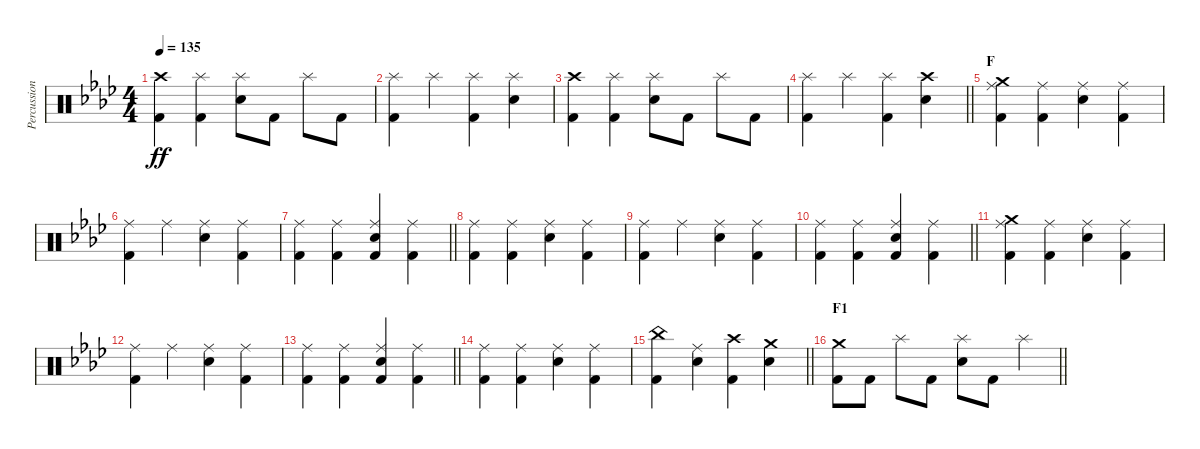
\track ("Percussion" "Percussion") {instrument percussion}
\staff {score}
\articulation defaults
\ts (4 4)
\tempo 135
\clef neutral
\ks fminor
("Crash high (hit)" "Kick (hit) 2").4{dy ff} ("Splash (hit)" "Kick (hit) 2").4 ("Splash (hit)" "Electric Snare (hit)").8 "Kick (hit) 2".8 "Splash (hit)".8 "Kick (hit) 2".8 |
("Splash (hit)" "Kick (hit) 2").4 "Splash (hit)".4 ("Splash (hit)" "Kick (hit) 2").4 ("Splash (hit)" "Electric Snare (hit)").4 |
("Crash high (hit)" "Kick (hit) 2").4 ("Splash (hit)" "Kick (hit) 2").4 ("Splash (hit)" "Electric Snare (hit)").8 "Kick (hit) 2".8 "Splash (hit)".8 "Kick (hit) 2".8 |
\barLineRight lightlight
("Splash (hit)" "Kick (hit) 2").4 "Splash (hit)".4 ("Splash (hit)" "Kick (hit) 2").4 ("Crash high (hit)" "Electric Snare (hit)").4 |
\section ("" "F")
("Crash medium (hit)" "Ride (middle)" "Kick (hit) 2").4 ("Ride (middle)" "Kick (hit) 2").4 ("Ride (middle)" "Snare (hit) 2").4 ("Ride (middle)" "Kick (hit) 2").4 |
("Ride (middle)" "Kick (hit) 2").4 "Ride (middle)".4 ("Ride (middle)" "Snare (hit) 2").4 ("Ride (middle)" "Kick (hit) 2").4 |
\barLineRight lightlight
("Ride (middle)" "Kick (hit) 2").4 ("Ride (middle)" "Kick (hit) 2").4 ("Ride (middle)" "Snare (hit) 2" "Kick (hit) 2").4 ("Ride (middle)" "Kick (hit) 2").4 |
\section ("" "")
("Ride (middle)" "Kick (hit) 2").4 ("Ride (middle)" "Kick (hit) 2").4 ("Ride (middle)" "Snare (hit) 2").4 ("Ride (middle)" "Kick (hit) 2").4 |
("Ride (middle)" "Kick (hit) 2").4 "Ride (middle)".4 ("Ride (middle)" "Snare (hit) 2").4 ("Ride (middle)" "Kick (hit) 2").4 |
\barLineRight lightlight
("Ride (middle)" "Kick (hit) 2").4 ("Ride (middle)" "Kick (hit) 2").4 ("Ride (middle)" "Snare (hit) 2" "Kick (hit) 2").4 ("Ride (middle)" "Kick (hit) 2").4 |
\section ("" "")
("Crash medium (hit)" "Ride (middle)" "Kick (hit) 2").4 ("Ride (middle)" "Kick (hit) 2").4 ("Ride (middle)" "Snare (hit) 2").4 ("Ride (middle)" "Kick (hit) 2").4 |
("Ride (middle)" "Kick (hit) 2").4 "Ride (middle)".4 ("Ride (middle)" "Snare (hit) 2").4 ("Ride (middle)" "Kick (hit) 2").4 |
\barLineRight lightlight
("Ride (middle)" "Kick (hit) 2").4 ("Ride (middle)" "Kick (hit) 2").4 ("Ride (middle)" "Snare (hit) 2" "Kick (hit) 2").4 ("Ride (middle)" "Kick (hit) 2").4 |
\section ("" "")
("Ride (middle)" "Kick (hit) 2").4 ("Ride (middle)" "Kick (hit) 2").4 ("Ride (middle)" "Snare (hit) 2").4 ("Ride (middle)" "Kick (hit) 2").4 |
\barLineRight lightlight
("China (hit)" "Kick (hit) 2").4 ("Ride (middle)" "Snare (hit) 2").4 ("Crash high (hit)" "Kick (hit) 2").4 ("Crash medium (hit)" "Snare (hit) 2").4 |
\section ("" "F1")
\barLineRight lightlight
("Crash medium (hit)" "Kick (hit) 2").8 "Kick (hit) 2".8 "Splash (hit)".8 "Kick (hit) 2".8 ("Splash (hit)" "Electric Snare (hit)").8 "Kick (hit) 2".8 "Splash (hit)".4
